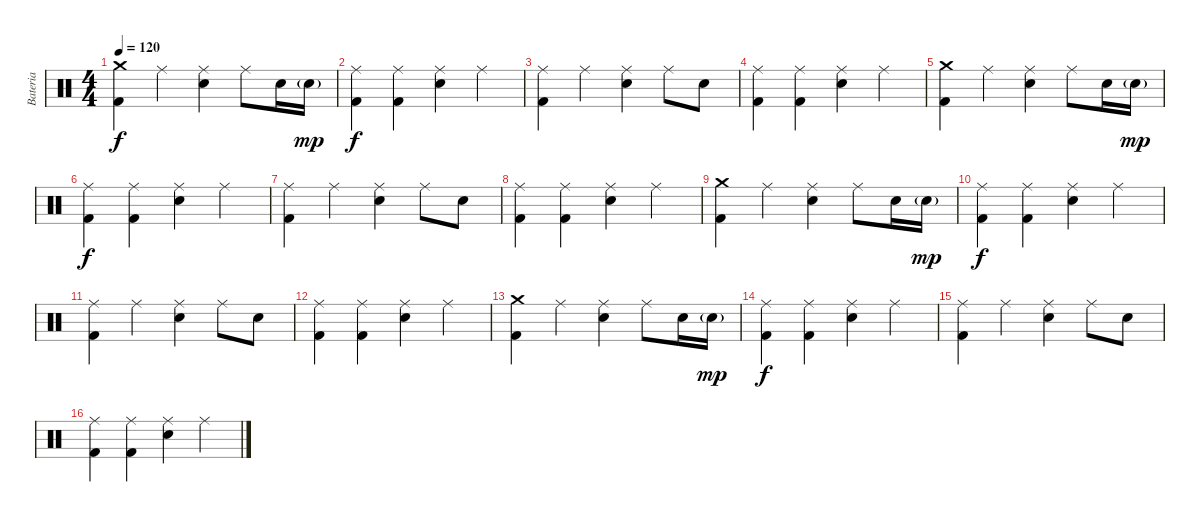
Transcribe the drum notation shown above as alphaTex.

\track ("Bateria" "Bateria") {instrument percussion}
\staff
\articulation defaults
\ts (4 4)
\tempo 120
\clef neutral
\ks c
("Crash medium (hit)" "Kick (hit) 2").4{dy f} "Ride (middle)".4 ("Ride (middle)" "Electric Snare (hit)").4 "Ride (middle)".8 "Electric Snare (hit)".16 "Electric Snare (hit)"{g}.16{dy mp} |
("Ride (middle)" "Kick (hit) 2").4{dy f} ("Ride (middle)" "Kick (hit) 2").4 ("Ride (middle)" "Electric Snare (hit)").4 "Ride (middle)".4 |
("Ride (middle)" "Kick (hit) 2").4 "Ride (middle)".4 ("Ride (middle)" "Electric Snare (hit)").4 "Ride (middle)".8 "Electric Snare (hit)".8 |
("Ride (middle)" "Kick (hit) 2").4 ("Ride (middle)" "Kick (hit) 2").4 ("Ride (middle)" "Electric Snare (hit)").4 "Ride (middle)".4 |
("Crash medium (hit)" "Kick (hit) 2").4 "Ride (middle)".4 ("Ride (middle)" "Electric Snare (hit)").4 "Ride (middle)".8 "Electric Snare (hit)".16 "Electric Snare (hit)"{g}.16{dy mp} |
("Ride (middle)" "Kick (hit) 2").4{dy f} ("Ride (middle)" "Kick (hit) 2").4 ("Ride (middle)" "Electric Snare (hit)").4 "Ride (middle)".4 |
("Ride (middle)" "Kick (hit) 2").4 "Ride (middle)".4 ("Ride (middle)" "Electric Snare (hit)").4 "Ride (middle)".8 "Electric Snare (hit)".8 |
("Ride (middle)" "Kick (hit) 2").4 ("Ride (middle)" "Kick (hit) 2").4 ("Ride (middle)" "Electric Snare (hit)").4 "Ride (middle)".4 |
("Crash medium (hit)" "Kick (hit) 2").4 "Ride (middle)".4 ("Ride (middle)" "Electric Snare (hit)").4 "Ride (middle)".8 "Electric Snare (hit)".16 "Electric Snare (hit)"{g}.16{dy mp} |
("Ride (middle)" "Kick (hit) 2").4{dy f} ("Ride (middle)" "Kick (hit) 2").4 ("Ride (middle)" "Electric Snare (hit)").4 "Ride (middle)".4 |
("Ride (middle)" "Kick (hit) 2").4 "Ride (middle)".4 ("Ride (middle)" "Electric Snare (hit)").4 "Ride (middle)".8 "Electric Snare (hit)".8 |
("Ride (middle)" "Kick (hit) 2").4 ("Ride (middle)" "Kick (hit) 2").4 ("Ride (middle)" "Electric Snare (hit)").4 "Ride (middle)".4 |
("Crash medium (hit)" "Kick (hit) 2").4 "Ride (middle)".4 ("Ride (middle)" "Electric Snare (hit)").4 "Ride (middle)".8 "Electric Snare (hit)".16 "Electric Snare (hit)"{g}.16{dy mp} |
("Ride (middle)" "Kick (hit) 2").4{dy f} ("Ride (middle)" "Kick (hit) 2").4 ("Ride (middle)" "Electric Snare (hit)").4 "Ride (middle)".4 |
("Ride (middle)" "Kick (hit) 2").4 "Ride (middle)".4 ("Ride (middle)" "Electric Snare (hit)").4 "Ride (middle)".8 "Electric Snare (hit)".8 |
("Ride (middle)" "Kick (hit) 2").4 ("Ride (middle)" "Kick (hit) 2").4 ("Ride (middle)" "Electric Snare (hit)").4 "Ride (middle)".4
